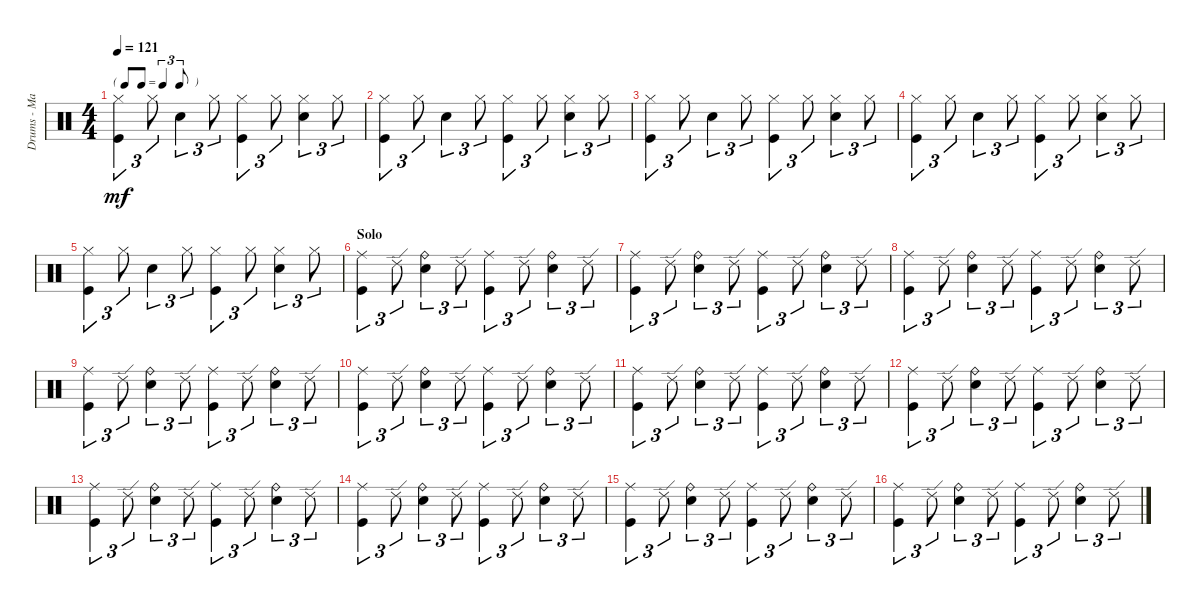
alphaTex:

\track ("Drums - Mason" "Drums - Ma") {instrument percussion}
\staff {score}
\articulation defaults
\ts (4 4)
\tf triplet8th
\tempo 121
\clef neutral
\ks c
("Hi-Hat (closed)" "Kick (hit)").4{tu (3 2) dy mf} "Hi-Hat (closed)".8{tu (3 2)} "Snare (hit) 2".4{tu (3 2)} "Hi-Hat (closed)".8{tu (3 2)} ("Hi-Hat (closed)" "Kick (hit)").4{tu (3 2)} "Hi-Hat (closed)".8{tu (3 2)} ("Hi-Hat (closed)" "Snare (hit) 2").4{tu (3 2)} "Hi-Hat (closed)".8{tu (3 2)} |
("Hi-Hat (closed)" "Kick (hit)").4{tu (3 2)} "Hi-Hat (closed)".8{tu (3 2)} "Snare (hit) 2".4{tu (3 2)} "Hi-Hat (closed)".8{tu (3 2)} ("Hi-Hat (closed)" "Kick (hit)").4{tu (3 2)} "Hi-Hat (closed)".8{tu (3 2)} ("Hi-Hat (closed)" "Snare (hit) 2").4{tu (3 2)} "Hi-Hat (closed)".8{tu (3 2)} |
("Hi-Hat (closed)" "Kick (hit)").4{tu (3 2)} "Hi-Hat (closed)".8{tu (3 2)} "Snare (hit) 2".4{tu (3 2)} "Hi-Hat (closed)".8{tu (3 2)} ("Hi-Hat (closed)" "Kick (hit)").4{tu (3 2)} "Hi-Hat (closed)".8{tu (3 2)} ("Hi-Hat (closed)" "Snare (hit) 2").4{tu (3 2)} "Hi-Hat (closed)".8{tu (3 2)} |
("Hi-Hat (closed)" "Kick (hit)").4{tu (3 2)} "Hi-Hat (closed)".8{tu (3 2)} "Snare (hit) 2".4{tu (3 2)} "Hi-Hat (closed)".8{tu (3 2)} ("Hi-Hat (closed)" "Kick (hit)").4{tu (3 2)} "Hi-Hat (closed)".8{tu (3 2)} ("Hi-Hat (closed)" "Snare (hit) 2").4{tu (3 2)} "Hi-Hat (closed)".8{tu (3 2)} |
("Hi-Hat (closed)" "Kick (hit)").4{tu (3 2)} "Hi-Hat (closed)".8{tu (3 2)} "Snare (hit) 2".4{tu (3 2)} "Hi-Hat (closed)".8{tu (3 2)} ("Hi-Hat (closed)" "Kick (hit)").4{tu (3 2)} "Hi-Hat (closed)".8{tu (3 2)} ("Hi-Hat (closed)" "Snare (hit) 2").4{tu (3 2)} "Hi-Hat (closed)".8{tu (3 2)} |
\section ("" "Solo")
("Ride (middle)" "Kick (hit)").4{tu (3 2)} "Ride (edge) 2".8{tu (3 2)} ("Ride (bell)" "Snare (hit) 2").4{tu (3 2)} "Ride (edge) 2".8{tu (3 2)} ("Ride (middle)" "Kick (hit)").4{tu (3 2)} "Ride (edge) 2".8{tu (3 2)} ("Ride (bell)" "Snare (hit) 2").4{tu (3 2)} "Ride (edge) 2".8{tu (3 2)} |
("Ride (middle)" "Kick (hit)").4{tu (3 2)} "Ride (edge) 2".8{tu (3 2)} ("Ride (bell)" "Snare (hit) 2").4{tu (3 2)} "Ride (edge) 2".8{tu (3 2)} ("Ride (middle)" "Kick (hit)").4{tu (3 2)} "Ride (edge) 2".8{tu (3 2)} ("Ride (bell)" "Snare (hit) 2").4{tu (3 2)} "Ride (edge) 2".8{tu (3 2)} |
("Ride (middle)" "Kick (hit)").4{tu (3 2)} "Ride (edge) 2".8{tu (3 2)} ("Ride (bell)" "Snare (hit) 2").4{tu (3 2)} "Ride (edge) 2".8{tu (3 2)} ("Ride (middle)" "Kick (hit)").4{tu (3 2)} "Ride (edge) 2".8{tu (3 2)} ("Ride (bell)" "Snare (hit) 2").4{tu (3 2)} "Ride (edge) 2".8{tu (3 2)} |
("Ride (middle)" "Kick (hit)").4{tu (3 2)} "Ride (edge) 2".8{tu (3 2)} ("Ride (bell)" "Snare (hit) 2").4{tu (3 2)} "Ride (edge) 2".8{tu (3 2)} ("Ride (middle)" "Kick (hit)").4{tu (3 2)} "Ride (edge) 2".8{tu (3 2)} ("Ride (bell)" "Snare (hit) 2").4{tu (3 2)} "Ride (edge) 2".8{tu (3 2)} |
("Ride (middle)" "Kick (hit)").4{tu (3 2)} "Ride (edge) 2".8{tu (3 2)} ("Ride (bell)" "Snare (hit) 2").4{tu (3 2)} "Ride (edge) 2".8{tu (3 2)} ("Ride (middle)" "Kick (hit)").4{tu (3 2)} "Ride (edge) 2".8{tu (3 2)} ("Ride (bell)" "Snare (hit) 2").4{tu (3 2)} "Ride (edge) 2".8{tu (3 2)} |
("Ride (middle)" "Kick (hit)").4{tu (3 2)} "Ride (edge) 2".8{tu (3 2)} ("Ride (bell)" "Snare (hit) 2").4{tu (3 2)} "Ride (edge) 2".8{tu (3 2)} ("Ride (middle)" "Kick (hit)").4{tu (3 2)} "Ride (edge) 2".8{tu (3 2)} ("Ride (bell)" "Snare (hit) 2").4{tu (3 2)} "Ride (edge) 2".8{tu (3 2)} |
("Ride (middle)" "Kick (hit)").4{tu (3 2)} "Ride (edge) 2".8{tu (3 2)} ("Ride (bell)" "Snare (hit) 2").4{tu (3 2)} "Ride (edge) 2".8{tu (3 2)} ("Ride (middle)" "Kick (hit)").4{tu (3 2)} "Ride (edge) 2".8{tu (3 2)} ("Ride (bell)" "Snare (hit) 2").4{tu (3 2)} "Ride (edge) 2".8{tu (3 2)} |
("Ride (middle)" "Kick (hit)").4{tu (3 2)} "Ride (edge) 2".8{tu (3 2)} ("Ride (bell)" "Snare (hit) 2").4{tu (3 2)} "Ride (edge) 2".8{tu (3 2)} ("Ride (middle)" "Kick (hit)").4{tu (3 2)} "Ride (edge) 2".8{tu (3 2)} ("Ride (bell)" "Snare (hit) 2").4{tu (3 2)} "Ride (edge) 2".8{tu (3 2)} |
("Ride (middle)" "Kick (hit)").4{tu (3 2)} "Ride (edge) 2".8{tu (3 2)} ("Ride (bell)" "Snare (hit) 2").4{tu (3 2)} "Ride (edge) 2".8{tu (3 2)} ("Ride (middle)" "Kick (hit)").4{tu (3 2)} "Ride (edge) 2".8{tu (3 2)} ("Ride (bell)" "Snare (hit) 2").4{tu (3 2)} "Ride (edge) 2".8{tu (3 2)} |
("Ride (middle)" "Kick (hit)").4{tu (3 2)} "Ride (edge) 2".8{tu (3 2)} ("Ride (bell)" "Snare (hit) 2").4{tu (3 2)} "Ride (edge) 2".8{tu (3 2)} ("Ride (middle)" "Kick (hit)").4{tu (3 2)} "Ride (edge) 2".8{tu (3 2)} ("Ride (bell)" "Snare (hit) 2").4{tu (3 2)} "Ride (edge) 2".8{tu (3 2)} |
("Ride (middle)" "Kick (hit)").4{tu (3 2)} "Ride (edge) 2".8{tu (3 2)} ("Ride (bell)" "Snare (hit) 2").4{tu (3 2)} "Ride (edge) 2".8{tu (3 2)} ("Ride (middle)" "Kick (hit)").4{tu (3 2)} "Ride (edge) 2".8{tu (3 2)} ("Ride (bell)" "Snare (hit) 2").4{tu (3 2)} "Ride (edge) 2".8{tu (3 2)}
